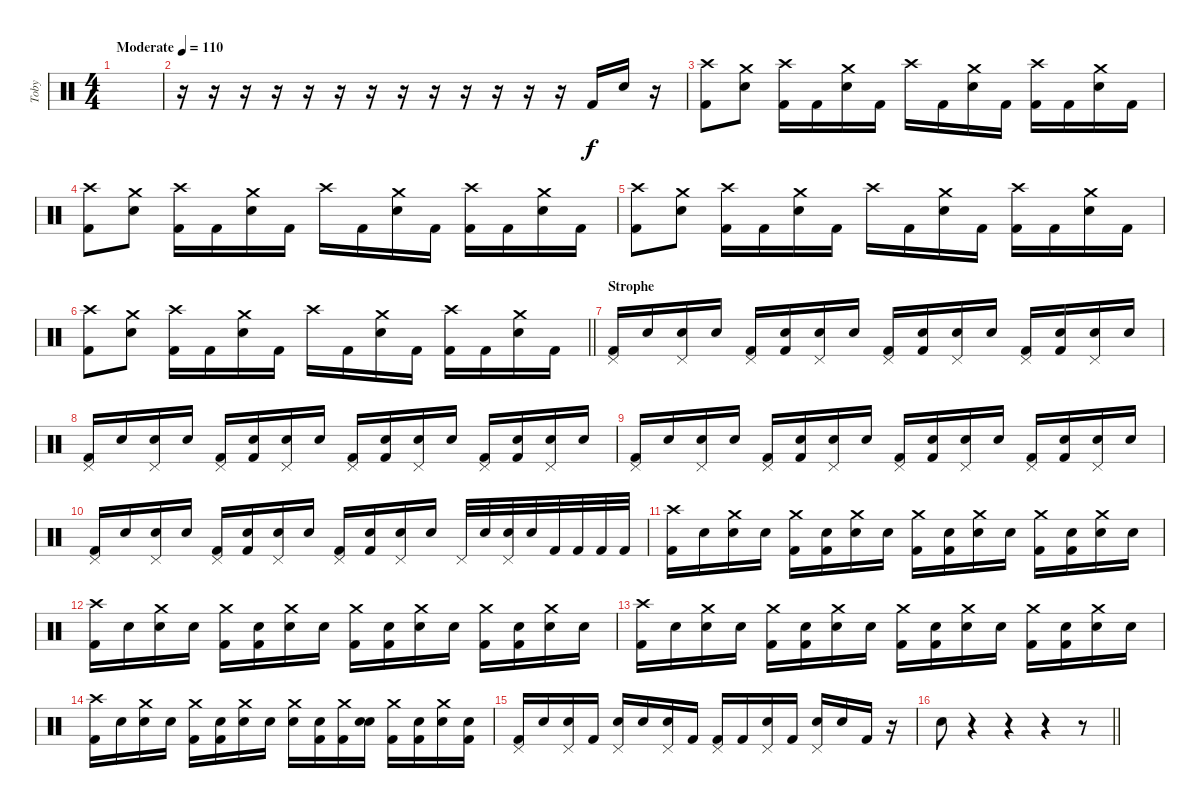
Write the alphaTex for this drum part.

\track ("Toby" "Toby") {instrument percussion}
\staff {score}
\articulation defaults
\ts (4 4)
\tempo (110 "Moderate")
\clef neutral
\ks c
|
r.16 r.16 r.16 r.16 r.16 r.16 r.16 r.16 r.16 r.16 r.16 r.16 r.16 "Kick (hit) 2".16 "Electric Snare (hit)".16 r.16 |
("Crash high (hit)" "Kick (hit) 2").8 ("Crash medium (hit)" "Electric Snare (hit)").8 ("Crash high (hit)" "Kick (hit) 2").16 "Kick (hit) 2".16 ("Crash medium (hit)" "Electric Snare (hit)").16 "Kick (hit) 2".16 "Crash high (hit)".16 "Kick (hit) 2".16 ("Crash medium (hit)" "Electric Snare (hit)").16 "Kick (hit) 2".16 ("Crash high (hit)" "Kick (hit) 2").16 "Kick (hit) 2".16 ("Crash medium (hit)" "Electric Snare (hit)").16 "Kick (hit) 2".16 |
("Crash high (hit)" "Kick (hit) 2").8 ("Crash medium (hit)" "Electric Snare (hit)").8 ("Crash high (hit)" "Kick (hit) 2").16 "Kick (hit) 2".16 ("Crash medium (hit)" "Electric Snare (hit)").16 "Kick (hit) 2".16 "Crash high (hit)".16 "Kick (hit) 2".16 ("Crash medium (hit)" "Electric Snare (hit)").16 "Kick (hit) 2".16 ("Crash high (hit)" "Kick (hit) 2").16 "Kick (hit) 2".16 ("Crash medium (hit)" "Electric Snare (hit)").16 "Kick (hit) 2".16 |
("Crash high (hit)" "Kick (hit) 2").8 ("Crash medium (hit)" "Electric Snare (hit)").8 ("Crash high (hit)" "Kick (hit) 2").16 "Kick (hit) 2".16 ("Crash medium (hit)" "Electric Snare (hit)").16 "Kick (hit) 2".16 "Crash high (hit)".16 "Kick (hit) 2".16 ("Crash medium (hit)" "Electric Snare (hit)").16 "Kick (hit) 2".16 ("Crash high (hit)" "Kick (hit) 2").16 "Kick (hit) 2".16 ("Crash medium (hit)" "Electric Snare (hit)").16 "Kick (hit) 2".16 |
\barLineRight lightlight
("Crash high (hit)" "Kick (hit) 2").8 ("Crash medium (hit)" "Electric Snare (hit)").8 ("Crash high (hit)" "Kick (hit) 2").16 "Kick (hit) 2".16 ("Crash medium (hit)" "Electric Snare (hit)").16 "Kick (hit) 2".16 "Crash high (hit)".16 "Kick (hit) 2".16 ("Crash medium (hit)" "Electric Snare (hit)").16 "Kick (hit) 2".16 ("Crash high (hit)" "Kick (hit) 2").16 "Kick (hit) 2".16 ("Crash medium (hit)" "Electric Snare (hit)").16 "Kick (hit) 2".16 |
\section ("" "Strophe")
("Pedal Hi-Hat (hit)" "Kick (hit) 2").16 "Snare (hit)".16 ("Pedal Hi-Hat (hit)" "Electric Snare (hit)").16 "Snare (hit)".16 ("Pedal Hi-Hat (hit)" "Kick (hit) 2").16 ("Snare (hit)" "Kick (hit) 2").16 ("Pedal Hi-Hat (hit)" "Electric Snare (hit)").16 "Snare (hit)".16 ("Pedal Hi-Hat (hit)" "Kick (hit) 2").16 ("Snare (hit)" "Kick (hit) 2").16 ("Pedal Hi-Hat (hit)" "Electric Snare (hit)").16 "Snare (hit)".16 ("Pedal Hi-Hat (hit)" "Kick (hit) 2").16 ("Snare (hit)" "Kick (hit) 2").16 ("Pedal Hi-Hat (hit)" "Electric Snare (hit)").16 "Snare (hit)".16 |
("Pedal Hi-Hat (hit)" "Kick (hit) 2").16 "Snare (hit)".16 ("Pedal Hi-Hat (hit)" "Electric Snare (hit)").16 "Snare (hit)".16 ("Pedal Hi-Hat (hit)" "Kick (hit) 2").16 ("Snare (hit)" "Kick (hit) 2").16 ("Pedal Hi-Hat (hit)" "Electric Snare (hit)").16 "Snare (hit)".16 ("Pedal Hi-Hat (hit)" "Kick (hit) 2").16 ("Snare (hit)" "Kick (hit) 2").16 ("Pedal Hi-Hat (hit)" "Electric Snare (hit)").16 "Snare (hit)".16 ("Pedal Hi-Hat (hit)" "Kick (hit) 2").16 ("Snare (hit)" "Kick (hit) 2").16 ("Pedal Hi-Hat (hit)" "Electric Snare (hit)").16 "Snare (hit)".16 |
("Pedal Hi-Hat (hit)" "Kick (hit) 2").16 "Snare (hit)".16 ("Pedal Hi-Hat (hit)" "Electric Snare (hit)").16 "Snare (hit)".16 ("Pedal Hi-Hat (hit)" "Kick (hit) 2").16 ("Snare (hit)" "Kick (hit) 2").16 ("Pedal Hi-Hat (hit)" "Electric Snare (hit)").16 "Snare (hit)".16 ("Pedal Hi-Hat (hit)" "Kick (hit) 2").16 ("Snare (hit)" "Kick (hit) 2").16 ("Pedal Hi-Hat (hit)" "Electric Snare (hit)").16 "Snare (hit)".16 ("Pedal Hi-Hat (hit)" "Kick (hit) 2").16 ("Snare (hit)" "Kick (hit) 2").16 ("Pedal Hi-Hat (hit)" "Electric Snare (hit)").16 "Snare (hit)".16 |
("Pedal Hi-Hat (hit)" "Kick (hit) 2").16 "Snare (hit)".16 ("Pedal Hi-Hat (hit)" "Electric Snare (hit)").16 "Snare (hit)".16 ("Pedal Hi-Hat (hit)" "Kick (hit) 2").16 ("Snare (hit)" "Kick (hit) 2").16 ("Pedal Hi-Hat (hit)" "Electric Snare (hit)").16 "Snare (hit)".16 ("Pedal Hi-Hat (hit)" "Kick (hit) 2").16 ("Snare (hit)" "Kick (hit) 2").16 ("Pedal Hi-Hat (hit)" "Electric Snare (hit)").16 "Snare (hit)".16 "Pedal Hi-Hat (hit)".32 "Snare (hit)".32 ("Pedal Hi-Hat (hit)" "Electric Snare (hit)").32 "Snare (hit)".32 "Kick (hit) 2".32 "Kick (hit) 2".32 "Kick (hit) 2".32 "Kick (hit) 2".32 |
("Crash high (hit)" "Kick (hit) 2").16 "Snare (hit)".16 ("Crash medium (hit)" "Electric Snare (hit)").16 "Snare (hit)".16 ("Crash medium (hit)" "Kick (hit) 2").16 ("Snare (hit)" "Kick (hit) 2").16 ("Crash medium (hit)" "Electric Snare (hit)").16 "Snare (hit)".16 ("Crash medium (hit)" "Kick (hit) 2").16 ("Snare (hit)" "Kick (hit) 2").16 ("Crash medium (hit)" "Electric Snare (hit)").16 "Snare (hit)".16 ("Crash medium (hit)" "Kick (hit) 2").16 ("Snare (hit)" "Kick (hit) 2").16 ("Crash medium (hit)" "Electric Snare (hit)").16 "Snare (hit)".16 |
("Crash high (hit)" "Kick (hit) 2").16 "Snare (hit)".16 ("Crash medium (hit)" "Electric Snare (hit)").16 "Snare (hit)".16 ("Crash medium (hit)" "Kick (hit) 2").16 ("Snare (hit)" "Kick (hit) 2").16 ("Crash medium (hit)" "Electric Snare (hit)").16 "Snare (hit)".16 ("Crash medium (hit)" "Kick (hit) 2").16 ("Snare (hit)" "Kick (hit) 2").16 ("Crash medium (hit)" "Electric Snare (hit)").16 "Snare (hit)".16 ("Crash medium (hit)" "Kick (hit) 2").16 ("Snare (hit)" "Kick (hit) 2").16 ("Crash medium (hit)" "Electric Snare (hit)").16 "Snare (hit)".16 |
("Crash high (hit)" "Kick (hit) 2").16 "Snare (hit)".16 ("Crash medium (hit)" "Electric Snare (hit)").16 "Snare (hit)".16 ("Crash medium (hit)" "Kick (hit) 2").16 ("Snare (hit)" "Kick (hit) 2").16 ("Crash medium (hit)" "Electric Snare (hit)").16 "Snare (hit)".16 ("Crash medium (hit)" "Kick (hit) 2").16 ("Snare (hit)" "Kick (hit) 2").16 ("Crash medium (hit)" "Electric Snare (hit)").16 "Snare (hit)".16 ("Crash medium (hit)" "Kick (hit) 2").16 ("Snare (hit)" "Kick (hit) 2").16 ("Crash medium (hit)" "Electric Snare (hit)").16 "Snare (hit)".16 |
("Crash high (hit)" "Kick (hit) 2").16 "Snare (hit)".16 ("Crash medium (hit)" "Electric Snare (hit)").16 "Snare (hit)".16 ("Crash medium (hit)" "Kick (hit) 2").16 ("Snare (hit)" "Kick (hit) 2").16 ("Crash medium (hit)" "Electric Snare (hit)").16 "Snare (hit)".16 ("Crash medium (hit)" "Electric Snare (hit)").16 ("Snare (hit)" "Kick (hit) 2").16 ("Crash medium (hit)" "Kick (hit) 2").16 ("Snare (hit)" "Electric Snare (hit)").16 ("Crash medium (hit)" "Kick (hit) 2").16 ("Snare (hit)" "Kick (hit) 2").16 ("Crash medium (hit)" "Electric Snare (hit)").16 ("Snare (hit)" "Kick (hit) 2").16 |
("Pedal Hi-Hat (hit)" "Kick (hit) 2").16 "Snare (hit)".16 ("Pedal Hi-Hat (hit)" "Snare (hit)").16 "Kick (hit) 2".16 ("Pedal Hi-Hat (hit)" "Electric Snare (hit)").16 "Snare (hit)".16 ("Pedal Hi-Hat (hit)" "Snare (hit)").16 "Kick (hit) 2".16 ("Pedal Hi-Hat (hit)" "Kick (hit) 2").16 "Kick (hit) 2".16 ("Pedal Hi-Hat (hit)" "Snare (hit)").16 "Kick (hit) 2".16 ("Pedal Hi-Hat (hit)" "Electric Snare (hit)").16 "Snare (hit)".16 "Kick (hit) 2".16 r.16 |
\barLineRight lightlight "Electric Snare (hit)".8
r.4 r.4 r.4 r.8
